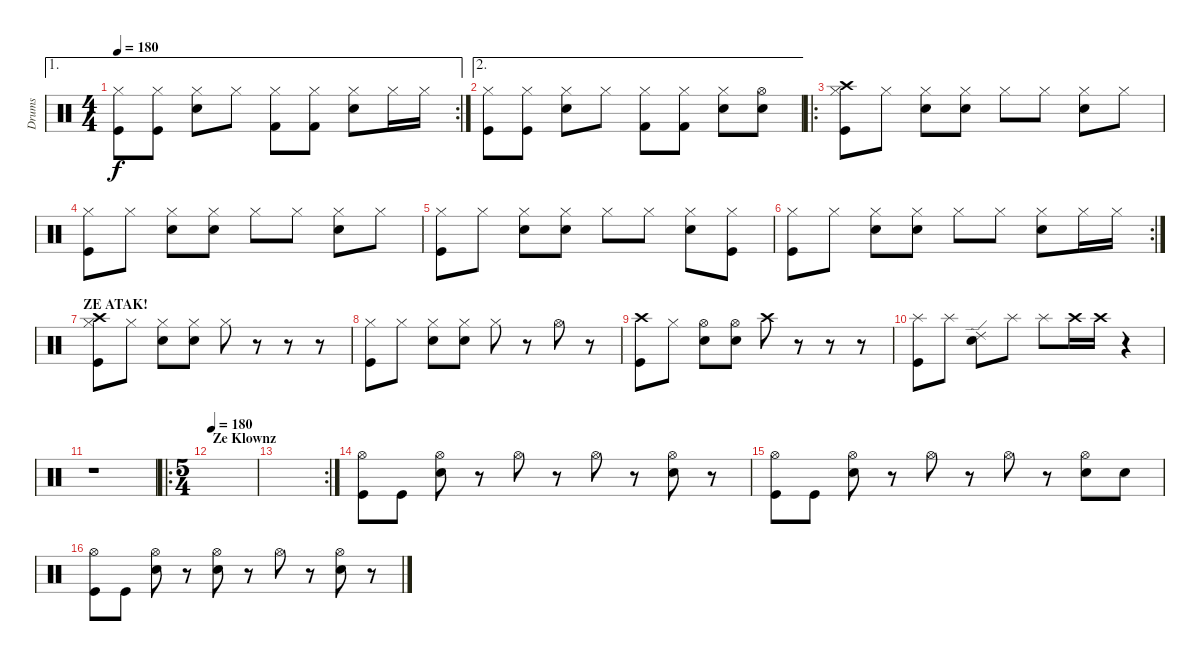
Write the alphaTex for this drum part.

\track ("Drums" "Drums") {instrument percussion}
\staff {score}
\articulation defaults
\ae 1
\rc 2
\ts (4 4)
\tempo 180
\clef neutral
\ks c
("Hi-Hat (closed)" "Kick (hit)").8{dy f} ("Hi-Hat (closed)" "Kick (hit)").8 ("Hi-Hat (closed)" "Electric Snare (hit)").8 "Hi-Hat (closed)".8 ("Hi-Hat (closed)" "Kick (hit) 2").8 ("Hi-Hat (closed)" "Kick (hit) 2").8 ("Hi-Hat (closed)" "Electric Snare (hit)").8 "Hi-Hat (closed)".16 "Hi-Hat (closed)".16 |
\ae 2
("Hi-Hat (closed)" "Kick (hit)").8 ("Hi-Hat (closed)" "Kick (hit)").8 ("Hi-Hat (closed)" "Electric Snare (hit)").8 "Hi-Hat (closed)".8 ("Hi-Hat (closed)" "Kick (hit) 2").8 ("Hi-Hat (closed)" "Kick (hit) 2").8 ("Hi-Hat (closed)" "Electric Snare (hit)").8 ("Hi-Hat (open)" "Electric Snare (hit)").8 |
\ro
("Hi-Hat (closed)" "Crash high (hit)" "Kick (hit)").8 "Hi-Hat (closed)".8 ("Hi-Hat (closed)" "Electric Snare (hit)").8 ("Hi-Hat (closed)" "Electric Snare (hit)").8 "Hi-Hat (closed)".8 "Hi-Hat (closed)".8 ("Hi-Hat (closed)" "Electric Snare (hit)").8 "Hi-Hat (closed)".8 |
("Hi-Hat (closed)" "Kick (hit)").8 "Hi-Hat (closed)".8 ("Hi-Hat (closed)" "Electric Snare (hit)").8 ("Hi-Hat (closed)" "Electric Snare (hit)").8 "Hi-Hat (closed)".8 "Hi-Hat (closed)".8 ("Hi-Hat (closed)" "Electric Snare (hit)").8 "Hi-Hat (closed)".8 |
("Hi-Hat (closed)" "Kick (hit)").8 "Hi-Hat (closed)".8 ("Hi-Hat (closed)" "Electric Snare (hit)").8 ("Hi-Hat (closed)" "Electric Snare (hit)").8 "Hi-Hat (closed)".8 "Hi-Hat (closed)".8 ("Hi-Hat (closed)" "Electric Snare (hit)").8 ("Hi-Hat (closed)" "Kick (hit)").8 |
\rc 2
("Hi-Hat (closed)" "Kick (hit)").8 "Hi-Hat (closed)".8 ("Hi-Hat (closed)" "Electric Snare (hit)").8 ("Hi-Hat (closed)" "Electric Snare (hit)").8 "Hi-Hat (closed)".8 "Hi-Hat (closed)".8 ("Hi-Hat (closed)" "Electric Snare (hit)").8 "Hi-Hat (closed)".16 "Hi-Hat (closed)".16 |
\section ("" "ZE ATAK!")
("Hi-Hat (closed)" "Crash high (hit)" "Kick (hit)").8 "Hi-Hat (closed)".8 ("Hi-Hat (closed)" "Electric Snare (hit)").8 ("Hi-Hat (closed)" "Electric Snare (hit)").8 "Hi-Hat (closed)".8 r.8 r.8 r.8 |
("Hi-Hat (closed)" "Kick (hit)").8 "Hi-Hat (closed)".8 ("Hi-Hat (closed)" "Electric Snare (hit)").8 ("Hi-Hat (closed)" "Electric Snare (hit)").8 "Hi-Hat (closed)".8 r.8 "Hi-Hat (open)".8 r.8 |
("Crash high (hit)" "Kick (hit)").8 "Hi-Hat (closed)".8 ("Hi-Hat (open)" "Electric Snare (hit)").8 ("Hi-Hat (open)" "Electric Snare (hit)").8 "Crash high (hit)".8 r.8 r.8 r.8 |
("Splash (hit)" "Kick (hit)").8 "Splash (hit)".8 ("Ride (edge) 2" "Electric Snare (hit)").8 "Splash (hit)".8 "Splash (hit)".8 "Crash high (hit)".16 "Crash high (hit)".16 r.4 |
r.1 |
\ro
\ts (5 4)
\section ("" "Ze Klownz")
\tempo 180
|
\rc 2
|
("Hi-Hat (open)" "Kick (hit)").8 "Kick (hit)".8 ("Hi-Hat (open)" "Electric Snare (hit)").8 r.8 "Hi-Hat (open)".8 r.8 "Hi-Hat (open)".8 r.8 ("Hi-Hat (open)" "Electric Snare (hit)").8 r.8 |
("Hi-Hat (open)" "Kick (hit)").8 "Kick (hit)".8 ("Hi-Hat (open)" "Electric Snare (hit)").8 r.8 "Hi-Hat (open)".8 r.8 "Hi-Hat (open)".8 r.8 ("Hi-Hat (open)" "Electric Snare (hit)").8 "Electric Snare (hit)".8 |
("Hi-Hat (open)" "Kick (hit)").8 "Kick (hit)".8 ("Hi-Hat (open)" "Electric Snare (hit)").8 r.8 ("Hi-Hat (open)" "Electric Snare (hit)").8 r.8 "Hi-Hat (open)".8 r.8 ("Hi-Hat (open)" "Electric Snare (hit)").8 r.8
